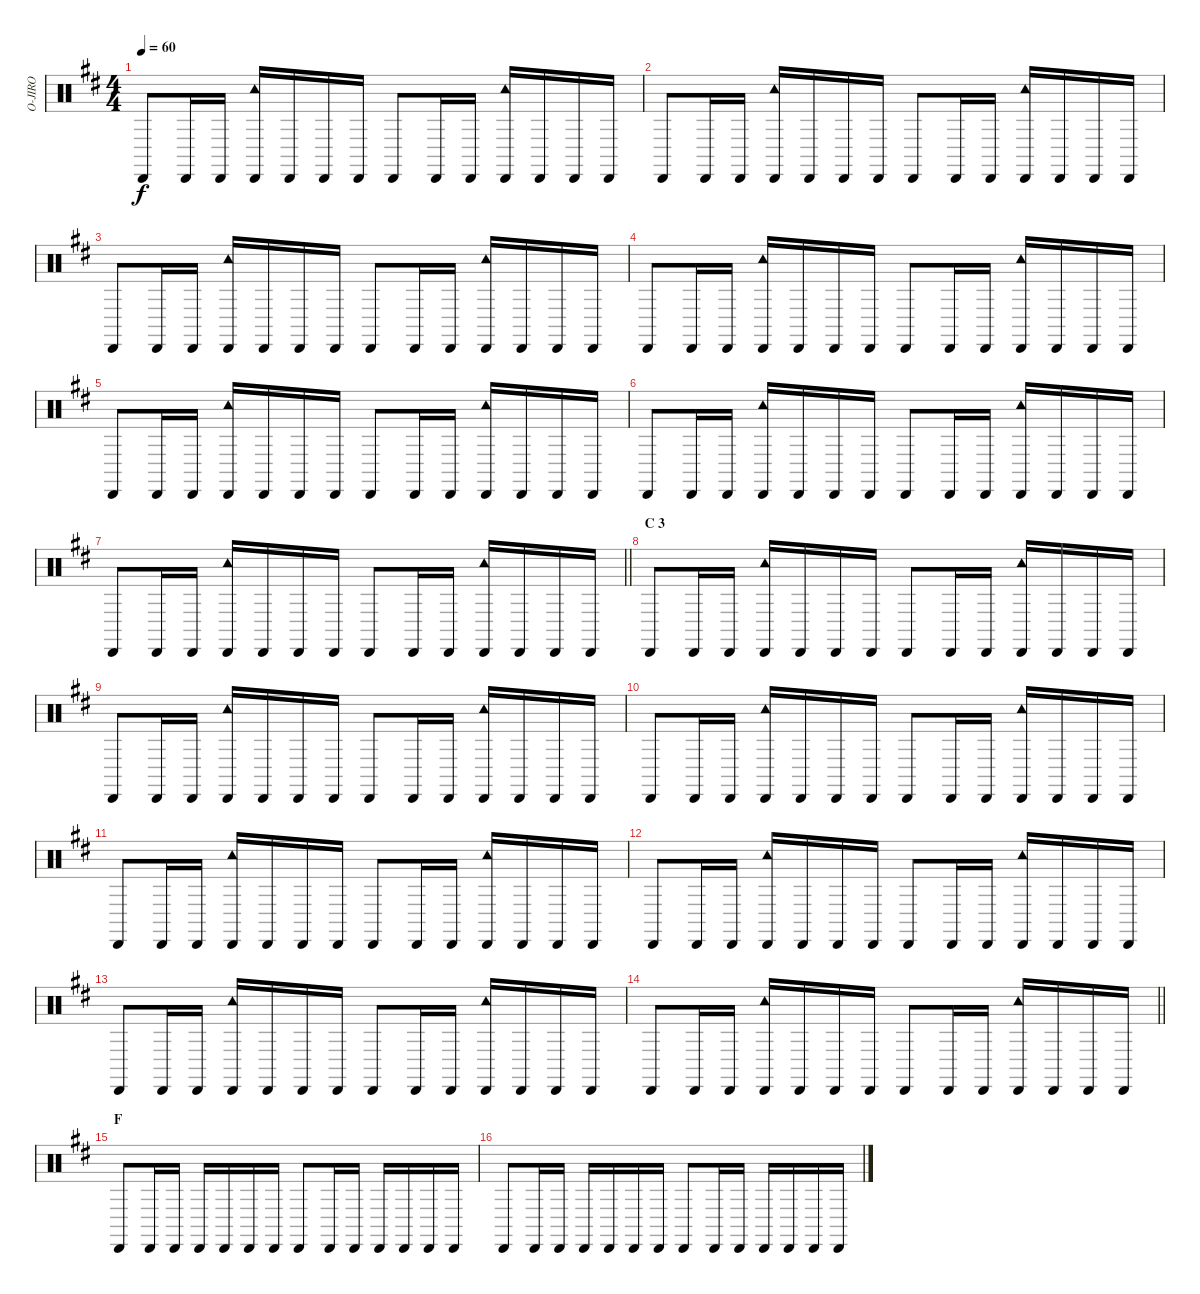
\track ("O-JIRO" "O-JIRO") {instrument percussion}
\staff {score}
\articulation defaults
\ts (4 4)
\tempo 60
\clef neutral
\ks d "Cabasa (hit)".8{dy f} "Cabasa (hit)".16 "Cabasa (hit)".16
("Cabasa (hit)" "Tambourine (hit)").16 "Cabasa (hit)".16 "Cabasa (hit)".16 "Cabasa (hit)".16 "Cabasa (hit)".8 "Cabasa (hit)".16 "Cabasa (hit)".16 ("Cabasa (hit)" "Tambourine (hit)").16 "Cabasa (hit)".16 "Cabasa (hit)".16 "Cabasa (hit)".16 |
"Cabasa (hit)".8 "Cabasa (hit)".16 "Cabasa (hit)".16 ("Cabasa (hit)" "Tambourine (hit)").16 "Cabasa (hit)".16 "Cabasa (hit)".16 "Cabasa (hit)".16 "Cabasa (hit)".8 "Cabasa (hit)".16 "Cabasa (hit)".16 ("Cabasa (hit)" "Tambourine (hit)").16 "Cabasa (hit)".16 "Cabasa (hit)".16 "Cabasa (hit)".16 |
"Cabasa (hit)".8 "Cabasa (hit)".16 "Cabasa (hit)".16 ("Cabasa (hit)" "Tambourine (hit)").16 "Cabasa (hit)".16 "Cabasa (hit)".16 "Cabasa (hit)".16 "Cabasa (hit)".8 "Cabasa (hit)".16 "Cabasa (hit)".16 ("Cabasa (hit)" "Tambourine (hit)").16 "Cabasa (hit)".16 "Cabasa (hit)".16 "Cabasa (hit)".16 |
"Cabasa (hit)".8 "Cabasa (hit)".16 "Cabasa (hit)".16 ("Cabasa (hit)" "Tambourine (hit)").16 "Cabasa (hit)".16 "Cabasa (hit)".16 "Cabasa (hit)".16 "Cabasa (hit)".8 "Cabasa (hit)".16 "Cabasa (hit)".16 ("Cabasa (hit)" "Tambourine (hit)").16 "Cabasa (hit)".16 "Cabasa (hit)".16 "Cabasa (hit)".16 |
"Cabasa (hit)".8 "Cabasa (hit)".16 "Cabasa (hit)".16 ("Cabasa (hit)" "Tambourine (hit)").16 "Cabasa (hit)".16 "Cabasa (hit)".16 "Cabasa (hit)".16 "Cabasa (hit)".8 "Cabasa (hit)".16 "Cabasa (hit)".16 ("Cabasa (hit)" "Tambourine (hit)").16 "Cabasa (hit)".16 "Cabasa (hit)".16 "Cabasa (hit)".16 |
"Cabasa (hit)".8 "Cabasa (hit)".16 "Cabasa (hit)".16 ("Cabasa (hit)" "Tambourine (hit)").16 "Cabasa (hit)".16 "Cabasa (hit)".16 "Cabasa (hit)".16 "Cabasa (hit)".8 "Cabasa (hit)".16 "Cabasa (hit)".16 ("Cabasa (hit)" "Tambourine (hit)").16 "Cabasa (hit)".16 "Cabasa (hit)".16 "Cabasa (hit)".16 |
\barLineRight lightlight "Cabasa (hit)".8 "Cabasa (hit)".16 "Cabasa (hit)".16
("Cabasa (hit)" "Tambourine (hit)").16 "Cabasa (hit)".16 "Cabasa (hit)".16 "Cabasa (hit)".16 "Cabasa (hit)".8 "Cabasa (hit)".16 "Cabasa (hit)".16 ("Cabasa (hit)" "Tambourine (hit)").16 "Cabasa (hit)".16 "Cabasa (hit)".16 "Cabasa (hit)".16 |
\section ("" "C 3")
"Cabasa (hit)".8 "Cabasa (hit)".16 "Cabasa (hit)".16 ("Cabasa (hit)" "Tambourine (hit)").16 "Cabasa (hit)".16 "Cabasa (hit)".16 "Cabasa (hit)".16 "Cabasa (hit)".8 "Cabasa (hit)".16 "Cabasa (hit)".16 ("Cabasa (hit)" "Tambourine (hit)").16 "Cabasa (hit)".16 "Cabasa (hit)".16 "Cabasa (hit)".16 |
"Cabasa (hit)".8 "Cabasa (hit)".16 "Cabasa (hit)".16 ("Cabasa (hit)" "Tambourine (hit)").16 "Cabasa (hit)".16 "Cabasa (hit)".16 "Cabasa (hit)".16 "Cabasa (hit)".8 "Cabasa (hit)".16 "Cabasa (hit)".16 ("Cabasa (hit)" "Tambourine (hit)").16 "Cabasa (hit)".16 "Cabasa (hit)".16 "Cabasa (hit)".16 |
"Cabasa (hit)".8 "Cabasa (hit)".16 "Cabasa (hit)".16 ("Cabasa (hit)" "Tambourine (hit)").16 "Cabasa (hit)".16 "Cabasa (hit)".16 "Cabasa (hit)".16 "Cabasa (hit)".8 "Cabasa (hit)".16 "Cabasa (hit)".16 ("Cabasa (hit)" "Tambourine (hit)").16 "Cabasa (hit)".16 "Cabasa (hit)".16 "Cabasa (hit)".16 |
"Cabasa (hit)".8 "Cabasa (hit)".16 "Cabasa (hit)".16 ("Cabasa (hit)" "Tambourine (hit)").16 "Cabasa (hit)".16 "Cabasa (hit)".16 "Cabasa (hit)".16 "Cabasa (hit)".8 "Cabasa (hit)".16 "Cabasa (hit)".16 ("Cabasa (hit)" "Tambourine (hit)").16 "Cabasa (hit)".16 "Cabasa (hit)".16 "Cabasa (hit)".16 |
"Cabasa (hit)".8 "Cabasa (hit)".16 "Cabasa (hit)".16 ("Cabasa (hit)" "Tambourine (hit)").16 "Cabasa (hit)".16 "Cabasa (hit)".16 "Cabasa (hit)".16 "Cabasa (hit)".8 "Cabasa (hit)".16 "Cabasa (hit)".16 ("Cabasa (hit)" "Tambourine (hit)").16 "Cabasa (hit)".16 "Cabasa (hit)".16 "Cabasa (hit)".16 |
"Cabasa (hit)".8 "Cabasa (hit)".16 "Cabasa (hit)".16 ("Cabasa (hit)" "Tambourine (hit)").16 "Cabasa (hit)".16 "Cabasa (hit)".16 "Cabasa (hit)".16 "Cabasa (hit)".8 "Cabasa (hit)".16 "Cabasa (hit)".16 ("Cabasa (hit)" "Tambourine (hit)").16 "Cabasa (hit)".16 "Cabasa (hit)".16 "Cabasa (hit)".16 |
\barLineRight lightlight "Cabasa (hit)".8 "Cabasa (hit)".16 "Cabasa (hit)".16
("Cabasa (hit)" "Tambourine (hit)").16 "Cabasa (hit)".16 "Cabasa (hit)".16 "Cabasa (hit)".16 "Cabasa (hit)".8 "Cabasa (hit)".16 "Cabasa (hit)".16 ("Cabasa (hit)" "Tambourine (hit)").16 "Cabasa (hit)".16 "Cabasa (hit)".16 "Cabasa (hit)".16 |
\section ("" "F")
"Cabasa (hit)".8 "Cabasa (hit)".16 "Cabasa (hit)".16 "Cabasa (hit)".16 "Cabasa (hit)".16 "Cabasa (hit)".16 "Cabasa (hit)".16 "Cabasa (hit)".8 "Cabasa (hit)".16 "Cabasa (hit)".16 "Cabasa (hit)".16 "Cabasa (hit)".16 "Cabasa (hit)".16 "Cabasa (hit)".16 |
"Cabasa (hit)".8 "Cabasa (hit)".16 "Cabasa (hit)".16 "Cabasa (hit)".16 "Cabasa (hit)".16 "Cabasa (hit)".16 "Cabasa (hit)".16 "Cabasa (hit)".8 "Cabasa (hit)".16 "Cabasa (hit)".16 "Cabasa (hit)".16 "Cabasa (hit)".16 "Cabasa (hit)".16 "Cabasa (hit)".16
